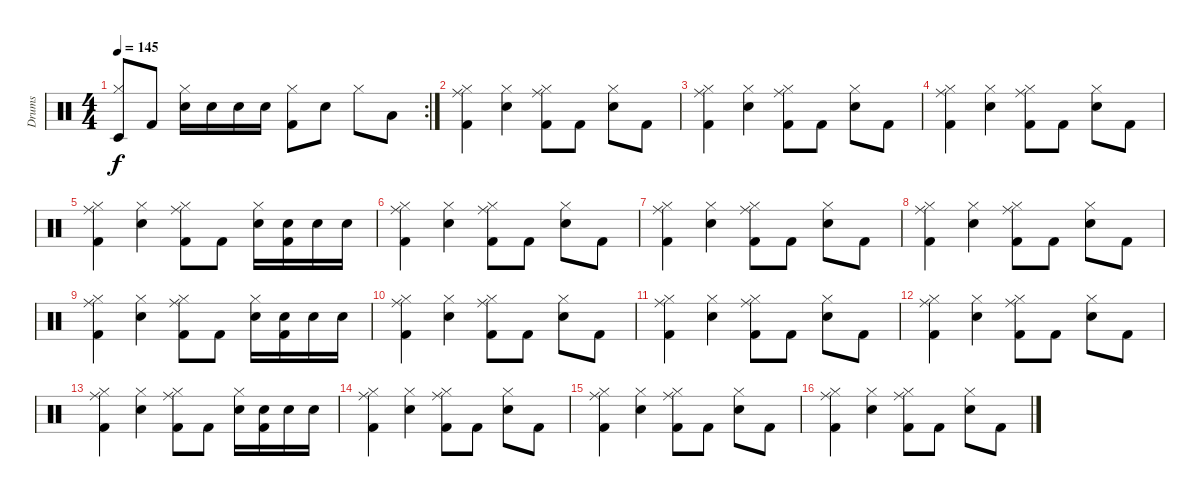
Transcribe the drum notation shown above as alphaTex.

\track ("Drums" "Drums") {instrument percussion}
\staff {score}
\articulation defaults
\rc 2
\ts (4 4)
\tempo 145
\clef neutral
\ks c
("Hi-Hat (closed)" "Timbale low (hit)").8{dy f} "Kick (hit) 2".8 ("Hi-Hat (closed)" "Electric Snare (hit)").16 "Electric Snare (hit)".16 "Electric Snare (hit)".16 "Electric Snare (hit)".16 ("Hi-Hat (closed)" "Kick (hit) 2").8 "Electric Snare (hit)".8 "Hi-Hat (closed)".8 "Low Tom (hit)".8 |
("Kick (hit) 2" "Hi-Hat (closed)" "Ride (middle)").4 ("Electric Snare (hit)" "Hi-Hat (closed)").4 ("Kick (hit) 2" "Hi-Hat (closed)" "Ride (middle)").8 "Kick (hit) 2".8 ("Electric Snare (hit)" "Hi-Hat (closed)").8 "Kick (hit) 2".8 |
("Kick (hit) 2" "Hi-Hat (closed)" "Ride (middle)").4 ("Electric Snare (hit)" "Hi-Hat (closed)").4 ("Kick (hit) 2" "Hi-Hat (closed)" "Ride (middle)").8 "Kick (hit) 2".8 ("Electric Snare (hit)" "Hi-Hat (closed)").8 "Kick (hit) 2".8 |
("Kick (hit) 2" "Hi-Hat (closed)" "Ride (middle)").4 ("Electric Snare (hit)" "Hi-Hat (closed)").4 ("Kick (hit) 2" "Hi-Hat (closed)" "Ride (middle)").8 "Kick (hit) 2".8 ("Electric Snare (hit)" "Hi-Hat (closed)").8 "Kick (hit) 2".8 |
("Kick (hit) 2" "Hi-Hat (closed)" "Ride (middle)").4 ("Electric Snare (hit)" "Hi-Hat (closed)").4 ("Kick (hit) 2" "Hi-Hat (closed)" "Ride (middle)").8 "Kick (hit) 2".8 ("Electric Snare (hit)" "Hi-Hat (closed)").16 ("Electric Snare (hit)" "Kick (hit) 2").16 "Electric Snare (hit)".16 "Electric Snare (hit)".16 |
("Kick (hit) 2" "Hi-Hat (closed)" "Ride (middle)").4 ("Electric Snare (hit)" "Hi-Hat (closed)").4 ("Kick (hit) 2" "Hi-Hat (closed)" "Ride (middle)").8 "Kick (hit) 2".8 ("Electric Snare (hit)" "Hi-Hat (closed)").8 "Kick (hit) 2".8 |
("Kick (hit) 2" "Hi-Hat (closed)" "Ride (middle)").4 ("Electric Snare (hit)" "Hi-Hat (closed)").4 ("Kick (hit) 2" "Hi-Hat (closed)" "Ride (middle)").8 "Kick (hit) 2".8 ("Electric Snare (hit)" "Hi-Hat (closed)").8 "Kick (hit) 2".8 |
("Kick (hit) 2" "Hi-Hat (closed)" "Ride (middle)").4 ("Electric Snare (hit)" "Hi-Hat (closed)").4 ("Kick (hit) 2" "Hi-Hat (closed)" "Ride (middle)").8 "Kick (hit) 2".8 ("Electric Snare (hit)" "Hi-Hat (closed)").8 "Kick (hit) 2".8 |
("Kick (hit) 2" "Hi-Hat (closed)" "Ride (middle)").4 ("Electric Snare (hit)" "Hi-Hat (closed)").4 ("Kick (hit) 2" "Hi-Hat (closed)" "Ride (middle)").8 "Kick (hit) 2".8 ("Electric Snare (hit)" "Hi-Hat (closed)").16 ("Electric Snare (hit)" "Kick (hit) 2").16 "Electric Snare (hit)".16 "Electric Snare (hit)".16 |
("Kick (hit) 2" "Hi-Hat (closed)" "Ride (middle)").4 ("Electric Snare (hit)" "Hi-Hat (closed)").4 ("Kick (hit) 2" "Hi-Hat (closed)" "Ride (middle)").8 "Kick (hit) 2".8 ("Electric Snare (hit)" "Hi-Hat (closed)").8 "Kick (hit) 2".8 |
("Kick (hit) 2" "Hi-Hat (closed)" "Ride (middle)").4 ("Electric Snare (hit)" "Hi-Hat (closed)").4 ("Kick (hit) 2" "Hi-Hat (closed)" "Ride (middle)").8 "Kick (hit) 2".8 ("Electric Snare (hit)" "Hi-Hat (closed)").8 "Kick (hit) 2".8 |
("Kick (hit) 2" "Hi-Hat (closed)" "Ride (middle)").4 ("Electric Snare (hit)" "Hi-Hat (closed)").4 ("Kick (hit) 2" "Hi-Hat (closed)" "Ride (middle)").8 "Kick (hit) 2".8 ("Electric Snare (hit)" "Hi-Hat (closed)").8 "Kick (hit) 2".8 |
("Kick (hit) 2" "Hi-Hat (closed)" "Ride (middle)").4 ("Electric Snare (hit)" "Hi-Hat (closed)").4 ("Kick (hit) 2" "Hi-Hat (closed)" "Ride (middle)").8 "Kick (hit) 2".8 ("Electric Snare (hit)" "Hi-Hat (closed)").16 ("Electric Snare (hit)" "Kick (hit) 2").16 "Electric Snare (hit)".16 "Electric Snare (hit)".16 |
("Kick (hit) 2" "Hi-Hat (closed)" "Ride (middle)").4 ("Electric Snare (hit)" "Hi-Hat (closed)").4 ("Kick (hit) 2" "Hi-Hat (closed)" "Ride (middle)").8 "Kick (hit) 2".8 ("Electric Snare (hit)" "Hi-Hat (closed)").8 "Kick (hit) 2".8 |
("Kick (hit) 2" "Hi-Hat (closed)" "Ride (middle)").4 ("Electric Snare (hit)" "Hi-Hat (closed)").4 ("Kick (hit) 2" "Hi-Hat (closed)" "Ride (middle)").8 "Kick (hit) 2".8 ("Electric Snare (hit)" "Hi-Hat (closed)").8 "Kick (hit) 2".8 |
("Kick (hit) 2" "Hi-Hat (closed)" "Ride (middle)").4 ("Electric Snare (hit)" "Hi-Hat (closed)").4 ("Kick (hit) 2" "Hi-Hat (closed)" "Ride (middle)").8 "Kick (hit) 2".8 ("Electric Snare (hit)" "Hi-Hat (closed)").8 "Kick (hit) 2".8
